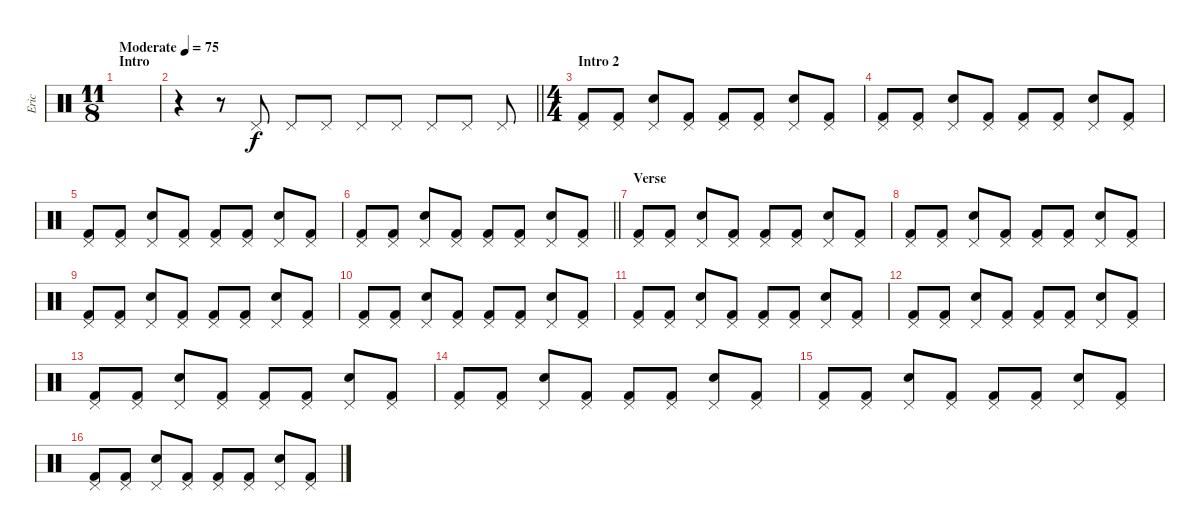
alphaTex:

\track ("Eric" "Eric") {instrument percussion}
\staff {score}
\articulation defaults
\ts (11 8)
\section ("" "Intro")
\tempo (75 "Moderate")
\clef neutral
\ks c
|
\barLineRight lightlight
r.4 r.8 "Pedal Hi-Hat (hit)".8 "Pedal Hi-Hat (hit)".8 "Pedal Hi-Hat (hit)".8 "Pedal Hi-Hat (hit)".8 "Pedal Hi-Hat (hit)".8 "Pedal Hi-Hat (hit)".8 "Pedal Hi-Hat (hit)".8 "Pedal Hi-Hat (hit)".8 |
\ts (4 4)
\section ("" "Intro 2")
("Pedal Hi-Hat (hit)" "Kick (hit) 2").8 ("Pedal Hi-Hat (hit)" "Kick (hit) 2").8 ("Pedal Hi-Hat (hit)" "Snare (hit) 2").8 ("Pedal Hi-Hat (hit)" "Kick (hit) 2").8 ("Pedal Hi-Hat (hit)" "Kick (hit) 2").8 ("Pedal Hi-Hat (hit)" "Kick (hit) 2").8 ("Pedal Hi-Hat (hit)" "Snare (hit) 2").8 ("Pedal Hi-Hat (hit)" "Kick (hit) 2").8 |
("Pedal Hi-Hat (hit)" "Kick (hit) 2").8 ("Pedal Hi-Hat (hit)" "Kick (hit) 2").8 ("Pedal Hi-Hat (hit)" "Snare (hit) 2").8 ("Pedal Hi-Hat (hit)" "Kick (hit) 2").8 ("Pedal Hi-Hat (hit)" "Kick (hit) 2").8 ("Pedal Hi-Hat (hit)" "Kick (hit) 2").8 ("Pedal Hi-Hat (hit)" "Snare (hit) 2").8 ("Pedal Hi-Hat (hit)" "Kick (hit) 2").8 |
("Pedal Hi-Hat (hit)" "Kick (hit) 2").8 ("Pedal Hi-Hat (hit)" "Kick (hit) 2").8 ("Pedal Hi-Hat (hit)" "Snare (hit) 2").8 ("Pedal Hi-Hat (hit)" "Kick (hit) 2").8 ("Pedal Hi-Hat (hit)" "Kick (hit) 2").8 ("Pedal Hi-Hat (hit)" "Kick (hit) 2").8 ("Pedal Hi-Hat (hit)" "Snare (hit) 2").8 ("Pedal Hi-Hat (hit)" "Kick (hit) 2").8 |
\barLineRight lightlight
("Pedal Hi-Hat (hit)" "Kick (hit) 2").8 ("Pedal Hi-Hat (hit)" "Kick (hit) 2").8 ("Pedal Hi-Hat (hit)" "Snare (hit) 2").8 ("Pedal Hi-Hat (hit)" "Kick (hit) 2").8 ("Pedal Hi-Hat (hit)" "Kick (hit) 2").8 ("Pedal Hi-Hat (hit)" "Kick (hit) 2").8 ("Pedal Hi-Hat (hit)" "Snare (hit) 2").8 ("Pedal Hi-Hat (hit)" "Kick (hit) 2").8 |
\section ("" "Verse")
("Pedal Hi-Hat (hit)" "Kick (hit) 2").8 ("Pedal Hi-Hat (hit)" "Kick (hit) 2").8 ("Pedal Hi-Hat (hit)" "Snare (hit) 2").8 ("Pedal Hi-Hat (hit)" "Kick (hit) 2").8 ("Pedal Hi-Hat (hit)" "Kick (hit) 2").8 ("Pedal Hi-Hat (hit)" "Kick (hit) 2").8 ("Pedal Hi-Hat (hit)" "Snare (hit) 2").8 ("Pedal Hi-Hat (hit)" "Kick (hit) 2").8 |
("Pedal Hi-Hat (hit)" "Kick (hit) 2").8 ("Pedal Hi-Hat (hit)" "Kick (hit) 2").8 ("Pedal Hi-Hat (hit)" "Snare (hit) 2").8 ("Pedal Hi-Hat (hit)" "Kick (hit) 2").8 ("Pedal Hi-Hat (hit)" "Kick (hit) 2").8 ("Pedal Hi-Hat (hit)" "Kick (hit) 2").8 ("Pedal Hi-Hat (hit)" "Snare (hit) 2").8 ("Pedal Hi-Hat (hit)" "Kick (hit) 2").8 |
("Pedal Hi-Hat (hit)" "Kick (hit) 2").8 ("Pedal Hi-Hat (hit)" "Kick (hit) 2").8 ("Pedal Hi-Hat (hit)" "Snare (hit) 2").8 ("Pedal Hi-Hat (hit)" "Kick (hit) 2").8 ("Pedal Hi-Hat (hit)" "Kick (hit) 2").8 ("Pedal Hi-Hat (hit)" "Kick (hit) 2").8 ("Pedal Hi-Hat (hit)" "Snare (hit) 2").8 ("Pedal Hi-Hat (hit)" "Kick (hit) 2").8 |
("Pedal Hi-Hat (hit)" "Kick (hit) 2").8 ("Pedal Hi-Hat (hit)" "Kick (hit) 2").8 ("Pedal Hi-Hat (hit)" "Snare (hit) 2").8 ("Pedal Hi-Hat (hit)" "Kick (hit) 2").8 ("Pedal Hi-Hat (hit)" "Kick (hit) 2").8 ("Pedal Hi-Hat (hit)" "Kick (hit) 2").8 ("Pedal Hi-Hat (hit)" "Snare (hit) 2").8 ("Pedal Hi-Hat (hit)" "Kick (hit) 2").8 |
("Pedal Hi-Hat (hit)" "Kick (hit) 2").8 ("Pedal Hi-Hat (hit)" "Kick (hit) 2").8 ("Pedal Hi-Hat (hit)" "Snare (hit) 2").8 ("Pedal Hi-Hat (hit)" "Kick (hit) 2").8 ("Pedal Hi-Hat (hit)" "Kick (hit) 2").8 ("Pedal Hi-Hat (hit)" "Kick (hit) 2").8 ("Pedal Hi-Hat (hit)" "Snare (hit) 2").8 ("Pedal Hi-Hat (hit)" "Kick (hit) 2").8 |
("Pedal Hi-Hat (hit)" "Kick (hit) 2").8 ("Pedal Hi-Hat (hit)" "Kick (hit) 2").8 ("Pedal Hi-Hat (hit)" "Snare (hit) 2").8 ("Pedal Hi-Hat (hit)" "Kick (hit) 2").8 ("Pedal Hi-Hat (hit)" "Kick (hit) 2").8 ("Pedal Hi-Hat (hit)" "Kick (hit) 2").8 ("Pedal Hi-Hat (hit)" "Snare (hit) 2").8 ("Pedal Hi-Hat (hit)" "Kick (hit) 2").8 |
("Pedal Hi-Hat (hit)" "Kick (hit) 2").8 ("Pedal Hi-Hat (hit)" "Kick (hit) 2").8 ("Pedal Hi-Hat (hit)" "Snare (hit) 2").8 ("Pedal Hi-Hat (hit)" "Kick (hit) 2").8 ("Pedal Hi-Hat (hit)" "Kick (hit) 2").8 ("Pedal Hi-Hat (hit)" "Kick (hit) 2").8 ("Pedal Hi-Hat (hit)" "Snare (hit) 2").8 ("Pedal Hi-Hat (hit)" "Kick (hit) 2").8 |
("Pedal Hi-Hat (hit)" "Kick (hit) 2").8 ("Pedal Hi-Hat (hit)" "Kick (hit) 2").8 ("Pedal Hi-Hat (hit)" "Snare (hit) 2").8 ("Pedal Hi-Hat (hit)" "Kick (hit) 2").8 ("Pedal Hi-Hat (hit)" "Kick (hit) 2").8 ("Pedal Hi-Hat (hit)" "Kick (hit) 2").8 ("Pedal Hi-Hat (hit)" "Snare (hit) 2").8 ("Pedal Hi-Hat (hit)" "Kick (hit) 2").8 |
("Pedal Hi-Hat (hit)" "Kick (hit) 2").8 ("Pedal Hi-Hat (hit)" "Kick (hit) 2").8 ("Pedal Hi-Hat (hit)" "Snare (hit) 2").8 ("Pedal Hi-Hat (hit)" "Kick (hit) 2").8 ("Pedal Hi-Hat (hit)" "Kick (hit) 2").8 ("Pedal Hi-Hat (hit)" "Kick (hit) 2").8 ("Pedal Hi-Hat (hit)" "Snare (hit) 2").8 ("Pedal Hi-Hat (hit)" "Kick (hit) 2").8 |
("Pedal Hi-Hat (hit)" "Kick (hit) 2").8 ("Pedal Hi-Hat (hit)" "Kick (hit) 2").8 ("Pedal Hi-Hat (hit)" "Snare (hit) 2").8 ("Pedal Hi-Hat (hit)" "Kick (hit) 2").8 ("Pedal Hi-Hat (hit)" "Kick (hit) 2").8 ("Pedal Hi-Hat (hit)" "Kick (hit) 2").8 ("Pedal Hi-Hat (hit)" "Snare (hit) 2").8 ("Pedal Hi-Hat (hit)" "Kick (hit) 2").8
